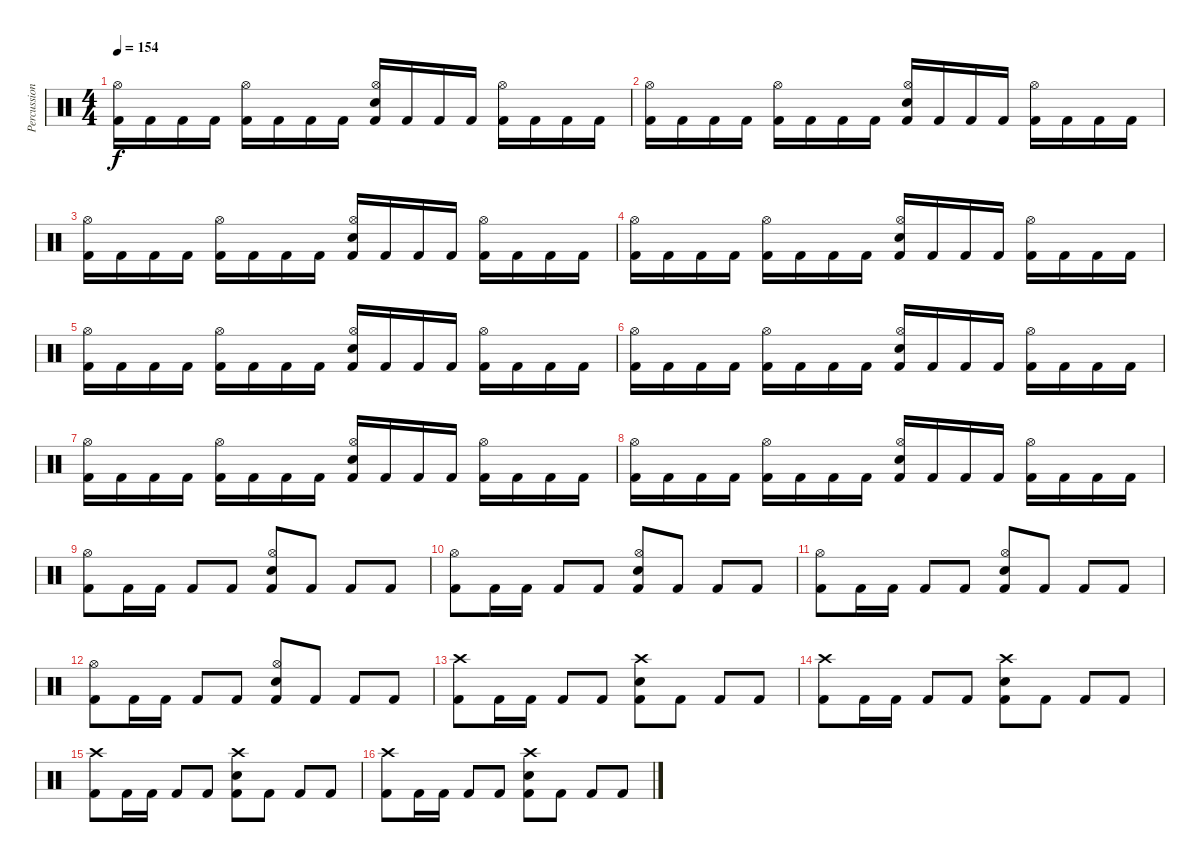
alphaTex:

\track ("Percussion" "Percussion") {instrument percussion}
\staff {score}
\articulation defaults
\ts (4 4)
\tempo 154
\clef neutral
\ks c
("Kick (hit) 2" "Hi-Hat (open)").16{dy f} "Kick (hit) 2".16 "Kick (hit) 2".16 "Kick (hit) 2".16 ("Kick (hit) 2" "Hi-Hat (open)").16 "Kick (hit) 2".16 "Kick (hit) 2".16 "Kick (hit) 2".16 ("Kick (hit) 2" "Hi-Hat (open)" "Electric Snare (hit)").16 "Kick (hit) 2".16 "Kick (hit) 2".16 "Kick (hit) 2".16 ("Kick (hit) 2" "Hi-Hat (open)").16 "Kick (hit) 2".16 "Kick (hit) 2".16 "Kick (hit) 2".16 |
("Kick (hit) 2" "Hi-Hat (open)").16 "Kick (hit) 2".16 "Kick (hit) 2".16 "Kick (hit) 2".16 ("Kick (hit) 2" "Hi-Hat (open)").16 "Kick (hit) 2".16 "Kick (hit) 2".16 "Kick (hit) 2".16 ("Kick (hit) 2" "Hi-Hat (open)" "Electric Snare (hit)").16 "Kick (hit) 2".16 "Kick (hit) 2".16 "Kick (hit) 2".16 ("Kick (hit) 2" "Hi-Hat (open)").16 "Kick (hit) 2".16 "Kick (hit) 2".16 "Kick (hit) 2".16 |
("Kick (hit) 2" "Hi-Hat (open)").16 "Kick (hit) 2".16 "Kick (hit) 2".16 "Kick (hit) 2".16 ("Kick (hit) 2" "Hi-Hat (open)").16 "Kick (hit) 2".16 "Kick (hit) 2".16 "Kick (hit) 2".16 ("Kick (hit) 2" "Hi-Hat (open)" "Electric Snare (hit)").16 "Kick (hit) 2".16 "Kick (hit) 2".16 "Kick (hit) 2".16 ("Kick (hit) 2" "Hi-Hat (open)").16 "Kick (hit) 2".16 "Kick (hit) 2".16 "Kick (hit) 2".16 |
("Kick (hit) 2" "Hi-Hat (open)").16 "Kick (hit) 2".16 "Kick (hit) 2".16 "Kick (hit) 2".16 ("Kick (hit) 2" "Hi-Hat (open)").16 "Kick (hit) 2".16 "Kick (hit) 2".16 "Kick (hit) 2".16 ("Kick (hit) 2" "Hi-Hat (open)" "Electric Snare (hit)").16 "Kick (hit) 2".16 "Kick (hit) 2".16 "Kick (hit) 2".16 ("Kick (hit) 2" "Hi-Hat (open)").16 "Kick (hit) 2".16 "Kick (hit) 2".16 "Kick (hit) 2".16 |
("Kick (hit) 2" "Hi-Hat (open)").16 "Kick (hit) 2".16 "Kick (hit) 2".16 "Kick (hit) 2".16 ("Kick (hit) 2" "Hi-Hat (open)").16 "Kick (hit) 2".16 "Kick (hit) 2".16 "Kick (hit) 2".16 ("Kick (hit) 2" "Hi-Hat (open)" "Electric Snare (hit)").16 "Kick (hit) 2".16 "Kick (hit) 2".16 "Kick (hit) 2".16 ("Kick (hit) 2" "Hi-Hat (open)").16 "Kick (hit) 2".16 "Kick (hit) 2".16 "Kick (hit) 2".16 |
("Kick (hit) 2" "Hi-Hat (open)").16 "Kick (hit) 2".16 "Kick (hit) 2".16 "Kick (hit) 2".16 ("Kick (hit) 2" "Hi-Hat (open)").16 "Kick (hit) 2".16 "Kick (hit) 2".16 "Kick (hit) 2".16 ("Kick (hit) 2" "Hi-Hat (open)" "Electric Snare (hit)").16 "Kick (hit) 2".16 "Kick (hit) 2".16 "Kick (hit) 2".16 ("Kick (hit) 2" "Hi-Hat (open)").16 "Kick (hit) 2".16 "Kick (hit) 2".16 "Kick (hit) 2".16 |
("Kick (hit) 2" "Hi-Hat (open)").16 "Kick (hit) 2".16 "Kick (hit) 2".16 "Kick (hit) 2".16 ("Kick (hit) 2" "Hi-Hat (open)").16 "Kick (hit) 2".16 "Kick (hit) 2".16 "Kick (hit) 2".16 ("Kick (hit) 2" "Hi-Hat (open)" "Electric Snare (hit)").16 "Kick (hit) 2".16 "Kick (hit) 2".16 "Kick (hit) 2".16 ("Kick (hit) 2" "Hi-Hat (open)").16 "Kick (hit) 2".16 "Kick (hit) 2".16 "Kick (hit) 2".16 |
("Kick (hit) 2" "Hi-Hat (open)").16 "Kick (hit) 2".16 "Kick (hit) 2".16 "Kick (hit) 2".16 ("Kick (hit) 2" "Hi-Hat (open)").16 "Kick (hit) 2".16 "Kick (hit) 2".16 "Kick (hit) 2".16 ("Kick (hit) 2" "Hi-Hat (open)" "Electric Snare (hit)").16 "Kick (hit) 2".16 "Kick (hit) 2".16 "Kick (hit) 2".16 ("Kick (hit) 2" "Hi-Hat (open)").16 "Kick (hit) 2".16 "Kick (hit) 2".16 "Kick (hit) 2".16 |
("Kick (hit) 2" "Hi-Hat (open)").8 "Kick (hit) 2".16 "Kick (hit) 2".16 "Kick (hit) 2".8 "Kick (hit) 2".8 ("Kick (hit) 2" "Hi-Hat (open)" "Electric Snare (hit)").8 "Kick (hit) 2".8 "Kick (hit) 2".8 "Kick (hit) 2".8 |
("Kick (hit) 2" "Hi-Hat (open)").8 "Kick (hit) 2".16 "Kick (hit) 2".16 "Kick (hit) 2".8 "Kick (hit) 2".8 ("Kick (hit) 2" "Hi-Hat (open)" "Electric Snare (hit)").8 "Kick (hit) 2".8 "Kick (hit) 2".8 "Kick (hit) 2".8 |
("Kick (hit) 2" "Hi-Hat (open)").8 "Kick (hit) 2".16 "Kick (hit) 2".16 "Kick (hit) 2".8 "Kick (hit) 2".8 ("Kick (hit) 2" "Hi-Hat (open)" "Electric Snare (hit)").8 "Kick (hit) 2".8 "Kick (hit) 2".8 "Kick (hit) 2".8 |
("Kick (hit) 2" "Hi-Hat (open)").8 "Kick (hit) 2".16 "Kick (hit) 2".16 "Kick (hit) 2".8 "Kick (hit) 2".8 ("Kick (hit) 2" "Hi-Hat (open)" "Electric Snare (hit)").8 "Kick (hit) 2".8 "Kick (hit) 2".8 "Kick (hit) 2".8 |
("Kick (hit) 2" "Crash high (hit)").8 "Kick (hit) 2".16 "Kick (hit) 2".16 "Kick (hit) 2".8 "Kick (hit) 2".8 ("Kick (hit) 2" "Crash high (hit)" "Electric Snare (hit)").8 "Kick (hit) 2".8 "Kick (hit) 2".8 "Kick (hit) 2".8 |
("Kick (hit) 2" "Crash high (hit)").8 "Kick (hit) 2".16 "Kick (hit) 2".16 "Kick (hit) 2".8 "Kick (hit) 2".8 ("Kick (hit) 2" "Crash high (hit)" "Electric Snare (hit)").8 "Kick (hit) 2".8 "Kick (hit) 2".8 "Kick (hit) 2".8 |
("Kick (hit) 2" "Crash high (hit)").8 "Kick (hit) 2".16 "Kick (hit) 2".16 "Kick (hit) 2".8 "Kick (hit) 2".8 ("Kick (hit) 2" "Crash high (hit)" "Electric Snare (hit)").8 "Kick (hit) 2".8 "Kick (hit) 2".8 "Kick (hit) 2".8 |
("Kick (hit) 2" "Crash high (hit)").8 "Kick (hit) 2".16 "Kick (hit) 2".16 "Kick (hit) 2".8 "Kick (hit) 2".8 ("Kick (hit) 2" "Crash high (hit)" "Electric Snare (hit)").8 "Kick (hit) 2".8 "Kick (hit) 2".8 "Kick (hit) 2".8
